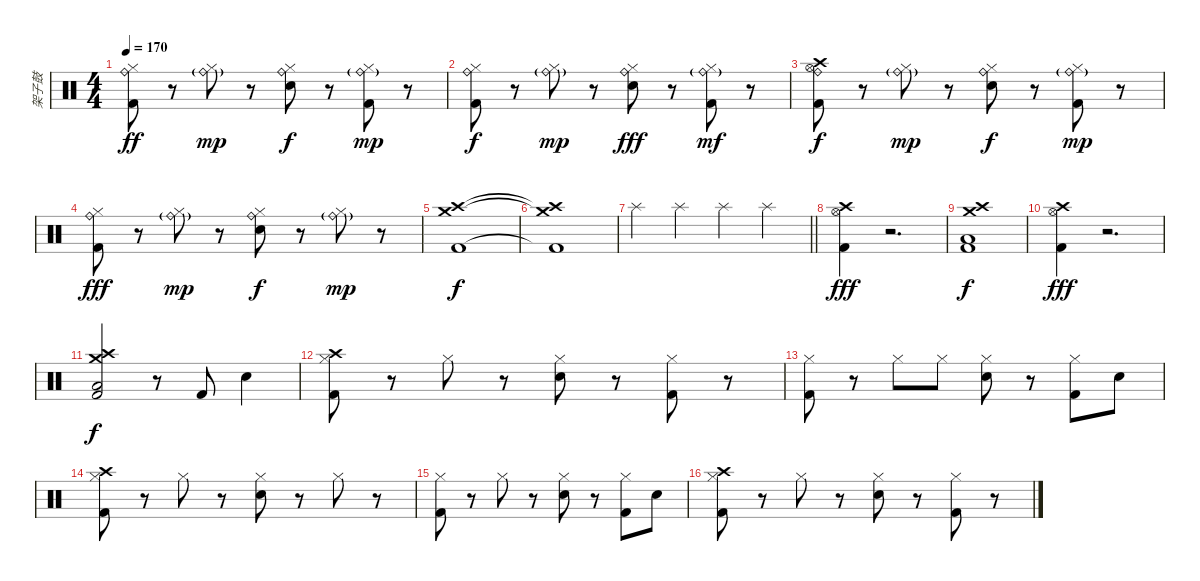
\track ("架子鼓" "架子鼓") {instrument percussion}
\staff {score}
\articulation defaults
\ts (4 4)
\tempo 170
\clef neutral
\ks c
("Hi-Hat (closed)" "Ride (bell)" "Kick (hit) 2").8{dy ff} r.8 ("Hi-Hat (closed)" "Ride (bell)"{g}).8{dy mp} r.8 ("Hi-Hat (closed)" "Ride (bell)" "Snare (hit) 2").8{dy f} r.8 ("Hi-Hat (closed)" "Ride (bell)"{g} "Kick (hit) 2").8{dy mp} r.8 |
("Hi-Hat (closed)" "Ride (bell)" "Kick (hit) 2").8{dy f} r.8 ("Hi-Hat (closed)" "Ride (bell)"{g}).8{dy mp} r.8 ("Hi-Hat (closed)" "Ride (bell)" "Snare (hit) 2").8{dy fff} r.8 ("Hi-Hat (closed)" "Ride (bell)"{g} "Kick (hit) 2").8{dy mf} r.8 |
("Crash high (hit)" "Ride (bell)" "Kick (hit) 2" "Hi-Hat (open)").8{dy f} r.8 ("Hi-Hat (closed)" "Ride (bell)"{g}).8{dy mp} r.8 ("Hi-Hat (closed)" "Ride (bell)" "Snare (hit) 2").8{dy f} r.8 ("Hi-Hat (closed)" "Ride (bell)"{g} "Kick (hit) 2").8{dy mp} r.8 |
("Hi-Hat (closed)" "Ride (bell)" "Kick (hit) 2").8{dy fff} r.8 ("Hi-Hat (closed)" "Ride (bell)"{g}).8{dy mp} r.8 ("Hi-Hat (closed)" "Ride (bell)" "Snare (hit) 2").8{dy f} r.8 ("Hi-Hat (closed)" "Ride (bell)"{g}).8{dy mp} r.8 |
("Kick (hit) 2" "Crash medium (hit)" "Crash high (hit)").1{dy f} |
("Kick (hit) 2"{t} "Crash medium (hit)"{t} "Crash high (hit)"{t}).1 |
\barLineRight lightlight "Splash (hit)".4{volume 14} "Splash (hit)".4 "Splash (hit)".4 "Splash (hit)".4
|
("Hi-Hat (open)" "Crash high (hit)" "Kick (hit) 2").4{dy fff} r.2{d} |
("Low Floor Tom (hit)" "Kick (hit) 2" "Crash medium (hit)" "Crash high (hit)").1{dy f} |
("Hi-Hat (open)" "Crash high (hit)" "Kick (hit) 2").4{dy fff} r.2{d} |
("Low Floor Tom (hit)" "Kick (hit) 2" "Crash medium (hit)" "Crash high (hit)").2{dy f} r.8 "Kick (hit) 2".8 "Snare (hit) 2".4 |
("Hi-Hat (closed)" "Kick (hit) 2" "Crash high (hit)").8 r.8 "Hi-Hat (closed)".8 r.8 ("Hi-Hat (closed)" "Snare (hit) 2").8 r.8 ("Hi-Hat (closed)" "Kick (hit) 2").8 r.8 |
("Hi-Hat (closed)" "Kick (hit) 2").8 r.8 "Hi-Hat (closed)".8 "Hi-Hat (closed)".8 ("Hi-Hat (closed)" "Snare (hit) 2").8 r.8 ("Hi-Hat (closed)" "Kick (hit) 2").8 "Snare (hit) 2".8 |
("Hi-Hat (closed)" "Kick (hit) 2" "Crash high (hit)").8 r.8 "Hi-Hat (closed)".8 r.8 ("Hi-Hat (closed)" "Snare (hit) 2").8 r.8 "Hi-Hat (closed)".8 r.8 |
("Hi-Hat (closed)" "Kick (hit) 2").8 r.8 "Hi-Hat (closed)".8 r.8 ("Hi-Hat (closed)" "Snare (hit) 2").8 r.8 ("Hi-Hat (closed)" "Kick (hit) 2").8 "Snare (hit) 2".8 |
("Hi-Hat (closed)" "Kick (hit) 2" "Crash high (hit)").8 r.8 "Hi-Hat (closed)".8 r.8 ("Hi-Hat (closed)" "Snare (hit) 2").8 r.8 ("Hi-Hat (closed)" "Kick (hit) 2").8 r.8
